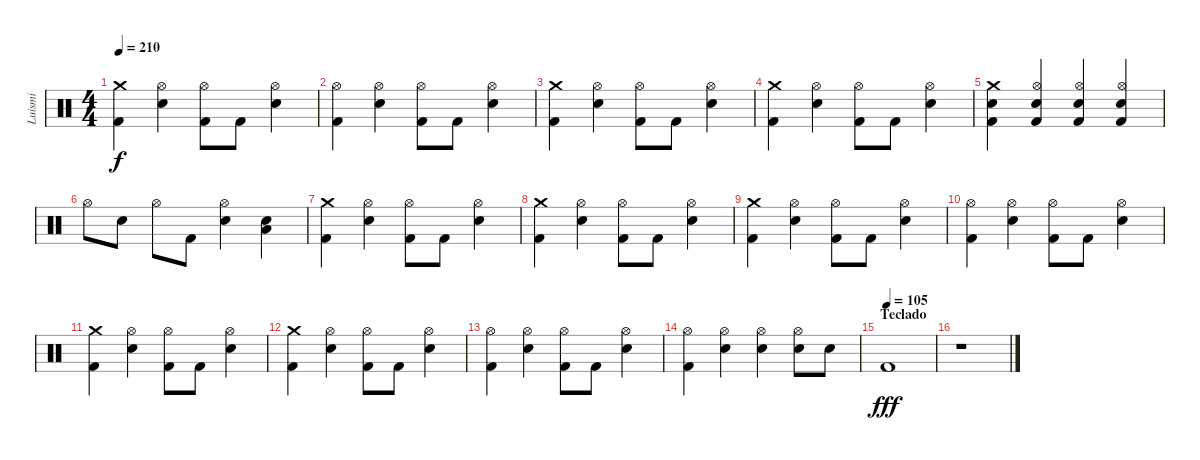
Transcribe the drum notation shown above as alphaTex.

\track ("Luismi" "Luismi") {instrument percussion}
\staff {score}
\articulation defaults
\ts (4 4)
\tempo 210
\clef neutral
\ks c
("Crash medium (hit)" "Kick (hit) 2").4{dy f} ("Hi-Hat (open)" "Snare (hit) 2").4 ("Hi-Hat (open)" "Kick (hit) 2").8 "Kick (hit) 2".8 ("Hi-Hat (open)" "Snare (hit) 2").4 |
("Hi-Hat (open)" "Kick (hit) 2").4 ("Hi-Hat (open)" "Snare (hit) 2").4 ("Hi-Hat (open)" "Kick (hit) 2").8 "Kick (hit) 2".8 ("Hi-Hat (open)" "Snare (hit) 2").4 |
("Crash medium (hit)" "Kick (hit) 2").4 ("Hi-Hat (open)" "Snare (hit) 2").4 ("Hi-Hat (open)" "Kick (hit) 2").8 "Kick (hit) 2".8 ("Hi-Hat (open)" "Snare (hit) 2").4 |
("Crash medium (hit)" "Kick (hit) 2").4 ("Hi-Hat (open)" "Snare (hit) 2").4 ("Hi-Hat (open)" "Kick (hit) 2").8 "Kick (hit) 2".8 ("Hi-Hat (open)" "Snare (hit) 2").4 |
("Crash medium (hit)" "Snare (hit) 2" "Kick (hit) 2").4 ("Hi-Hat (open)" "Snare (hit) 2" "Kick (hit) 2").4 ("Hi-Hat (open)" "Snare (hit) 2" "Kick (hit) 2").4 ("Hi-Hat (open)" "Snare (hit) 2" "Kick (hit) 2").4 |
"Hi-Hat (open)".8 "Snare (hit) 2".8 "Hi-Hat (open)".8 "Kick (hit) 2".8 ("Hi-Hat (open)" "Snare (hit) 2").4 ("Snare (hit) 2" "Low Floor Tom (hit)").4 |
("Crash medium (hit)" "Kick (hit) 2").4 ("Hi-Hat (open)" "Snare (hit) 2").4 ("Hi-Hat (open)" "Kick (hit) 2").8 "Kick (hit) 2".8 ("Hi-Hat (open)" "Snare (hit) 2").4 |
("Crash medium (hit)" "Kick (hit) 2").4 ("Hi-Hat (open)" "Snare (hit) 2").4 ("Hi-Hat (open)" "Kick (hit) 2").8 "Kick (hit) 2".8 ("Hi-Hat (open)" "Snare (hit) 2").4 |
("Crash medium (hit)" "Kick (hit) 2").4 ("Hi-Hat (open)" "Snare (hit) 2").4 ("Hi-Hat (open)" "Kick (hit) 2").8 "Kick (hit) 2".8 ("Hi-Hat (open)" "Snare (hit) 2").4 |
("Hi-Hat (open)" "Kick (hit) 2").4 ("Hi-Hat (open)" "Snare (hit) 2").4 ("Hi-Hat (open)" "Kick (hit) 2").8 "Kick (hit) 2".8 ("Hi-Hat (open)" "Snare (hit) 2").4 |
("Crash medium (hit)" "Kick (hit) 2").4 ("Hi-Hat (open)" "Snare (hit) 2").4 ("Hi-Hat (open)" "Kick (hit) 2").8 "Kick (hit) 2".8 ("Hi-Hat (open)" "Snare (hit) 2").4 |
("Crash medium (hit)" "Kick (hit) 2").4 ("Hi-Hat (open)" "Snare (hit) 2").4 ("Hi-Hat (open)" "Kick (hit) 2").8 "Kick (hit) 2".8 ("Hi-Hat (open)" "Snare (hit) 2").4 |
("Hi-Hat (open)" "Kick (hit) 2").4 ("Hi-Hat (open)" "Snare (hit) 2").4 ("Hi-Hat (open)" "Kick (hit) 2").8 "Kick (hit) 2".8 ("Hi-Hat (open)" "Snare (hit) 2").4 |
("Hi-Hat (open)" "Kick (hit) 2").4 ("Hi-Hat (open)" "Snare (hit) 2").4 ("Hi-Hat (open)" "Snare (hit) 2").4 ("Hi-Hat (open)" "Snare (hit) 2").8 "Snare (hit) 2".8 |
\section ("" "Teclado")
\tempo (105)
"Kick (hit) 2".1{dy fff} |
r.1
